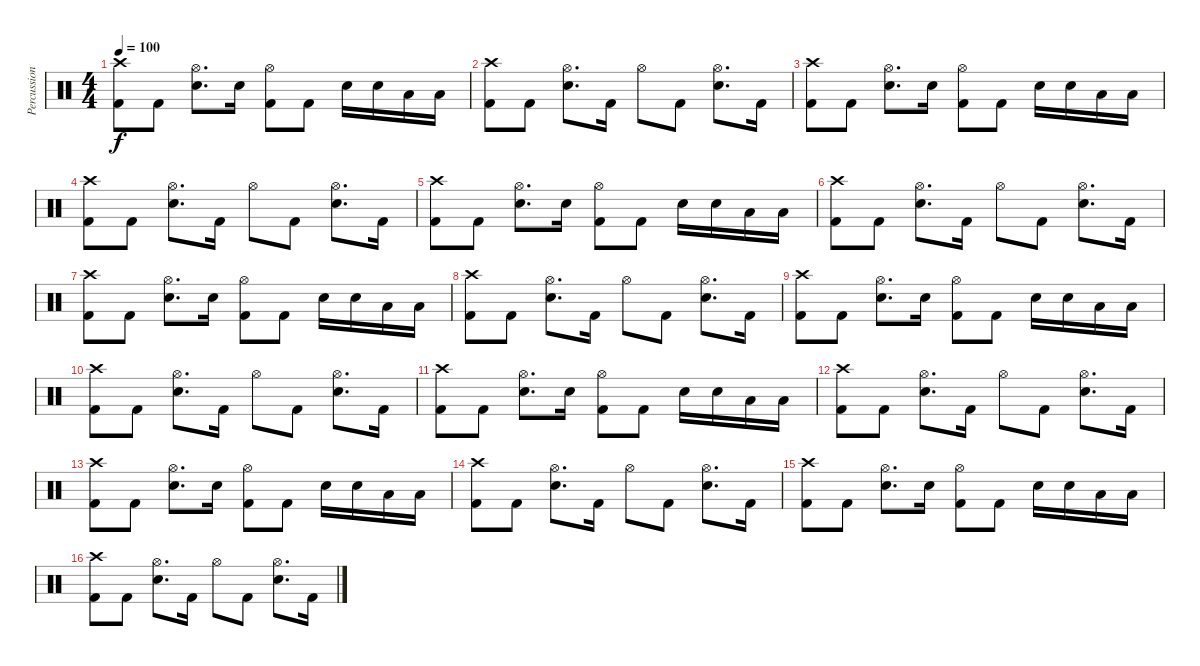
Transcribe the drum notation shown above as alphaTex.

\track ("Percussion" "Percussion") {instrument percussion}
\staff {score}
\articulation defaults
\ts (4 4)
\tempo 100
\clef neutral
\ks c
("Kick (hit) 2" "Crash high (hit)").8{dy f} "Kick (hit) 2".8 ("Hi-Hat (open)" "Electric Snare (hit)").8{d} "Electric Snare (hit)".16 ("Kick (hit) 2" "Hi-Hat (open)").8 "Kick (hit) 2".8 "Electric Snare (hit)".16 "Electric Snare (hit)".16 "Low Tom (hit)".16 "Low Tom (hit)".16 |
("Kick (hit) 2" "Crash high (hit)").8 "Kick (hit) 2".8 ("Electric Snare (hit)" "Hi-Hat (open)").8{d} "Kick (hit) 2".16 "Hi-Hat (open)".8 "Kick (hit) 2".8 ("Hi-Hat (open)" "Electric Snare (hit)").8{d} "Kick (hit) 2".16 |
("Kick (hit) 2" "Crash high (hit)").8 "Kick (hit) 2".8 ("Hi-Hat (open)" "Electric Snare (hit)").8{d} "Electric Snare (hit)".16 ("Kick (hit) 2" "Hi-Hat (open)").8 "Kick (hit) 2".8 "Electric Snare (hit)".16 "Electric Snare (hit)".16 "Low Tom (hit)".16 "Low Tom (hit)".16 |
("Kick (hit) 2" "Crash high (hit)").8 "Kick (hit) 2".8 ("Electric Snare (hit)" "Hi-Hat (open)").8{d} "Kick (hit) 2".16 "Hi-Hat (open)".8 "Kick (hit) 2".8 ("Hi-Hat (open)" "Electric Snare (hit)").8{d} "Kick (hit) 2".16 |
("Kick (hit) 2" "Crash high (hit)").8 "Kick (hit) 2".8 ("Hi-Hat (open)" "Electric Snare (hit)").8{d} "Electric Snare (hit)".16 ("Kick (hit) 2" "Hi-Hat (open)").8 "Kick (hit) 2".8 "Electric Snare (hit)".16 "Electric Snare (hit)".16 "Low Tom (hit)".16 "Low Tom (hit)".16 |
("Kick (hit) 2" "Crash high (hit)").8 "Kick (hit) 2".8 ("Electric Snare (hit)" "Hi-Hat (open)").8{d} "Kick (hit) 2".16 "Hi-Hat (open)".8 "Kick (hit) 2".8 ("Hi-Hat (open)" "Electric Snare (hit)").8{d} "Kick (hit) 2".16 |
("Kick (hit) 2" "Crash high (hit)").8 "Kick (hit) 2".8 ("Hi-Hat (open)" "Electric Snare (hit)").8{d} "Electric Snare (hit)".16 ("Kick (hit) 2" "Hi-Hat (open)").8 "Kick (hit) 2".8 "Electric Snare (hit)".16 "Electric Snare (hit)".16 "Low Tom (hit)".16 "Low Tom (hit)".16 |
("Kick (hit) 2" "Crash high (hit)").8 "Kick (hit) 2".8 ("Electric Snare (hit)" "Hi-Hat (open)").8{d} "Kick (hit) 2".16 "Hi-Hat (open)".8 "Kick (hit) 2".8 ("Hi-Hat (open)" "Electric Snare (hit)").8{d} "Kick (hit) 2".16 |
("Kick (hit) 2" "Crash high (hit)").8 "Kick (hit) 2".8 ("Hi-Hat (open)" "Electric Snare (hit)").8{d} "Electric Snare (hit)".16 ("Kick (hit) 2" "Hi-Hat (open)").8 "Kick (hit) 2".8 "Electric Snare (hit)".16 "Electric Snare (hit)".16 "Low Tom (hit)".16 "Low Tom (hit)".16 |
("Kick (hit) 2" "Crash high (hit)").8 "Kick (hit) 2".8 ("Electric Snare (hit)" "Hi-Hat (open)").8{d} "Kick (hit) 2".16 "Hi-Hat (open)".8 "Kick (hit) 2".8 ("Hi-Hat (open)" "Electric Snare (hit)").8{d} "Kick (hit) 2".16 |
("Kick (hit) 2" "Crash high (hit)").8 "Kick (hit) 2".8 ("Hi-Hat (open)" "Electric Snare (hit)").8{d} "Electric Snare (hit)".16 ("Kick (hit) 2" "Hi-Hat (open)").8 "Kick (hit) 2".8 "Electric Snare (hit)".16 "Electric Snare (hit)".16 "Low Tom (hit)".16 "Low Tom (hit)".16 |
("Kick (hit) 2" "Crash high (hit)").8 "Kick (hit) 2".8 ("Electric Snare (hit)" "Hi-Hat (open)").8{d} "Kick (hit) 2".16 "Hi-Hat (open)".8 "Kick (hit) 2".8 ("Hi-Hat (open)" "Electric Snare (hit)").8{d} "Kick (hit) 2".16 |
("Kick (hit) 2" "Crash high (hit)").8 "Kick (hit) 2".8 ("Hi-Hat (open)" "Electric Snare (hit)").8{d} "Electric Snare (hit)".16 ("Kick (hit) 2" "Hi-Hat (open)").8 "Kick (hit) 2".8 "Electric Snare (hit)".16 "Electric Snare (hit)".16 "Low Tom (hit)".16 "Low Tom (hit)".16 |
("Kick (hit) 2" "Crash high (hit)").8 "Kick (hit) 2".8 ("Electric Snare (hit)" "Hi-Hat (open)").8{d} "Kick (hit) 2".16 "Hi-Hat (open)".8 "Kick (hit) 2".8 ("Hi-Hat (open)" "Electric Snare (hit)").8{d} "Kick (hit) 2".16 |
("Kick (hit) 2" "Crash high (hit)").8 "Kick (hit) 2".8 ("Hi-Hat (open)" "Electric Snare (hit)").8{d} "Electric Snare (hit)".16 ("Kick (hit) 2" "Hi-Hat (open)").8 "Kick (hit) 2".8 "Electric Snare (hit)".16 "Electric Snare (hit)".16 "Low Tom (hit)".16 "Low Tom (hit)".16 |
("Kick (hit) 2" "Crash high (hit)").8 "Kick (hit) 2".8 ("Electric Snare (hit)" "Hi-Hat (open)").8{d} "Kick (hit) 2".16 "Hi-Hat (open)".8 "Kick (hit) 2".8 ("Hi-Hat (open)" "Electric Snare (hit)").8{d} "Kick (hit) 2".16
